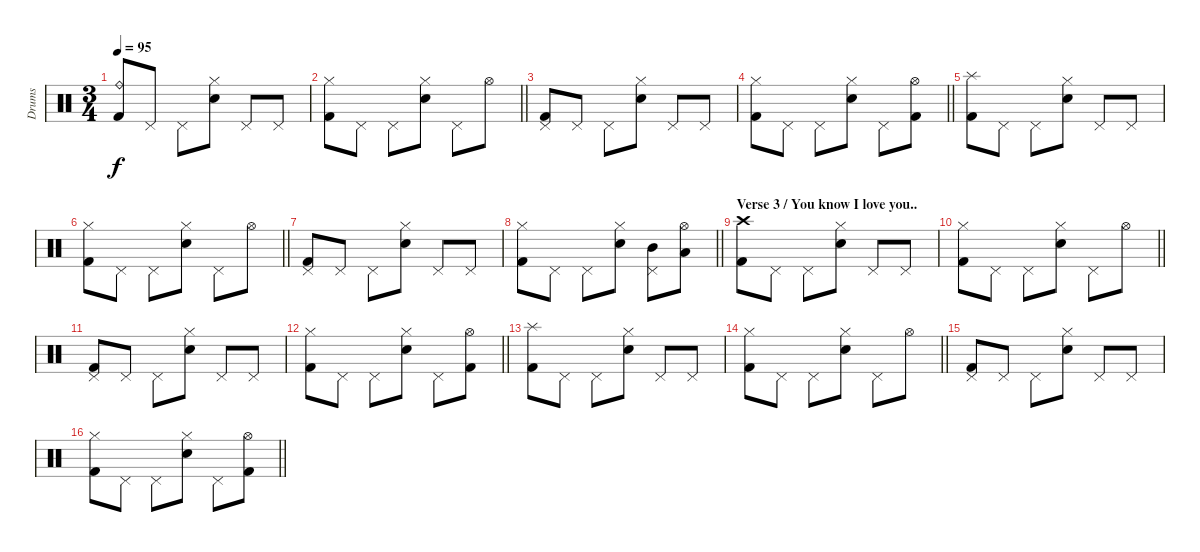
\track ("Drums" "Drums") {instrument percussion}
\staff {score}
\articulation defaults
\ts (3 4)
\tempo 95
\clef neutral
\ks c
("Ride (bell)" "Kick (hit) 2").8{dy f} "Pedal Hi-Hat (hit)".8 "Pedal Hi-Hat (hit)".8 ("Hi-Hat (closed)" "Snare (hit) 2").8 "Pedal Hi-Hat (hit)".8 "Pedal Hi-Hat (hit)".8 |
\barLineRight lightlight
("Hi-Hat (closed)" "Kick (hit) 2").8 "Pedal Hi-Hat (hit)".8 "Pedal Hi-Hat (hit)".8 ("Hi-Hat (closed)" "Snare (hit) 2").8 "Pedal Hi-Hat (hit)".8 "Hi-Hat (open)".8 |
("Pedal Hi-Hat (hit)" "Kick (hit) 2").8 "Pedal Hi-Hat (hit)".8 "Pedal Hi-Hat (hit)".8 ("Hi-Hat (closed)" "Snare (hit) 2").8 "Pedal Hi-Hat (hit)".8 "Pedal Hi-Hat (hit)".8 |
\barLineRight lightlight
("Hi-Hat (closed)" "Kick (hit) 2").8 "Pedal Hi-Hat (hit)".8 "Pedal Hi-Hat (hit)".8 ("Hi-Hat (closed)" "Snare (hit) 2").8 "Pedal Hi-Hat (hit)".8 ("Hi-Hat (open)" "Kick (hit) 2").8 |
("Splash (hit)" "Kick (hit) 2").8 "Pedal Hi-Hat (hit)".8 "Pedal Hi-Hat (hit)".8 ("Hi-Hat (closed)" "Snare (hit) 2").8 "Pedal Hi-Hat (hit)".8 "Pedal Hi-Hat (hit)".8 |
\barLineRight lightlight
("Hi-Hat (closed)" "Kick (hit) 2").8 "Pedal Hi-Hat (hit)".8 "Pedal Hi-Hat (hit)".8 ("Hi-Hat (closed)" "Snare (hit) 2").8 "Pedal Hi-Hat (hit)".8 "Hi-Hat (open)".8 |
("Pedal Hi-Hat (hit)" "Kick (hit) 2").8 "Pedal Hi-Hat (hit)".8 "Pedal Hi-Hat (hit)".8 ("Hi-Hat (closed)" "Snare (hit) 2").8 "Pedal Hi-Hat (hit)".8 "Pedal Hi-Hat (hit)".8 |
\barLineRight lightlight
("Hi-Hat (closed)" "Kick (hit) 2").8 "Pedal Hi-Hat (hit)".8 "Pedal Hi-Hat (hit)".8 ("Hi-Hat (closed)" "Snare (hit) 2").8 ("Pedal Hi-Hat (hit)" "Mid Tom (hit)").8 ("Hi-Hat (open)" "Low Tom (hit)").8 |
\section ("" "Verse 3 / You know I love you..")
("Crash high (hit)" "Kick (hit) 2").8 "Pedal Hi-Hat (hit)".8 "Pedal Hi-Hat (hit)".8 ("Hi-Hat (closed)" "Snare (hit) 2").8 "Pedal Hi-Hat (hit)".8 "Pedal Hi-Hat (hit)".8 |
\barLineRight lightlight
("Hi-Hat (closed)" "Kick (hit) 2").8 "Pedal Hi-Hat (hit)".8 "Pedal Hi-Hat (hit)".8 ("Hi-Hat (closed)" "Snare (hit) 2").8 "Pedal Hi-Hat (hit)".8 "Hi-Hat (open)".8 |
("Pedal Hi-Hat (hit)" "Kick (hit) 2").8 "Pedal Hi-Hat (hit)".8 "Pedal Hi-Hat (hit)".8 ("Hi-Hat (closed)" "Snare (hit) 2").8 "Pedal Hi-Hat (hit)".8 "Pedal Hi-Hat (hit)".8 |
\barLineRight lightlight
("Hi-Hat (closed)" "Kick (hit) 2").8 "Pedal Hi-Hat (hit)".8 "Pedal Hi-Hat (hit)".8 ("Hi-Hat (closed)" "Snare (hit) 2").8 "Pedal Hi-Hat (hit)".8 ("Hi-Hat (open)" "Kick (hit) 2").8 |
("Splash (hit)" "Kick (hit) 2").8 "Pedal Hi-Hat (hit)".8 "Pedal Hi-Hat (hit)".8 ("Hi-Hat (closed)" "Snare (hit) 2").8 "Pedal Hi-Hat (hit)".8 "Pedal Hi-Hat (hit)".8 |
\barLineRight lightlight
("Hi-Hat (closed)" "Kick (hit) 2").8 "Pedal Hi-Hat (hit)".8 "Pedal Hi-Hat (hit)".8 ("Hi-Hat (closed)" "Snare (hit) 2").8 "Pedal Hi-Hat (hit)".8 "Hi-Hat (open)".8 |
("Pedal Hi-Hat (hit)" "Kick (hit) 2").8 "Pedal Hi-Hat (hit)".8 "Pedal Hi-Hat (hit)".8 ("Hi-Hat (closed)" "Snare (hit) 2").8 "Pedal Hi-Hat (hit)".8 "Pedal Hi-Hat (hit)".8 |
\barLineRight lightlight
("Hi-Hat (closed)" "Kick (hit) 2").8 "Pedal Hi-Hat (hit)".8 "Pedal Hi-Hat (hit)".8 ("Hi-Hat (closed)" "Snare (hit) 2").8 "Pedal Hi-Hat (hit)".8 ("Hi-Hat (open)" "Kick (hit) 2").8
